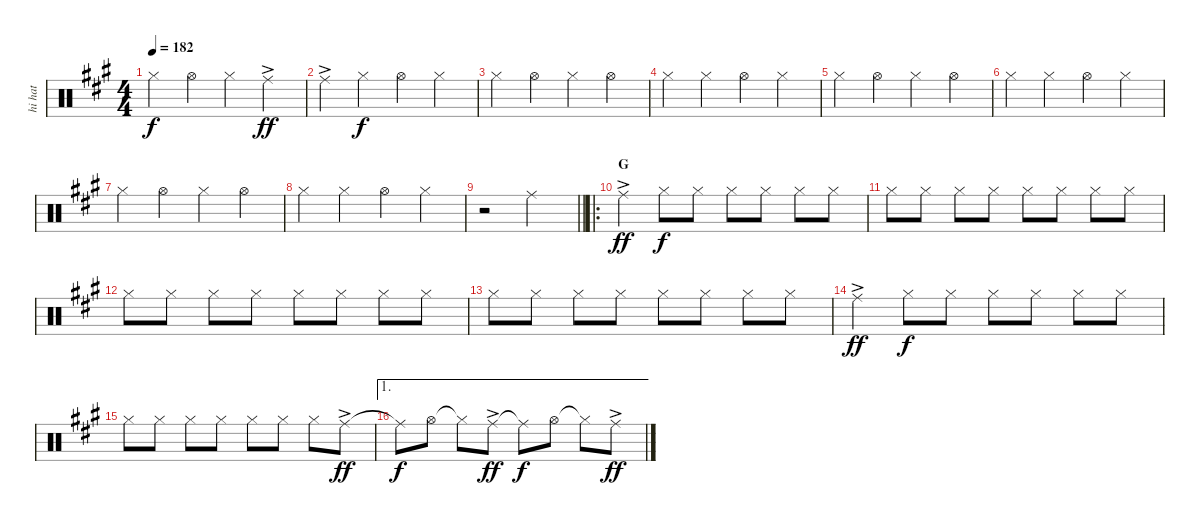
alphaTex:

\track ("hi hat" "hi hat") {instrument percussion}
\staff {score}
\articulation defaults
\ts (4 4)
\tempo 182
\clef neutral
\ks f#minor "Hi-Hat (closed)".4{dy f} "Hi-Hat (open)".4 "Hi-Hat (closed)".4 "Ride (middle)"{ac}.4{dy ff}
|
"Ride (middle)"{ac}.4 "Hi-Hat (closed)".4{dy f} "Hi-Hat (open)".4 "Hi-Hat (closed)".4 |
"Hi-Hat (closed)".4 "Hi-Hat (open)".4 "Hi-Hat (closed)".4 "Hi-Hat (open)".4 |
"Hi-Hat (closed)".4 "Hi-Hat (closed)".4 "Hi-Hat (open)".4 "Hi-Hat (closed)".4 |
"Hi-Hat (closed)".4 "Hi-Hat (open)".4 "Hi-Hat (closed)".4 "Hi-Hat (open)".4 |
"Hi-Hat (closed)".4 "Hi-Hat (closed)".4 "Hi-Hat (open)".4 "Hi-Hat (closed)".4 |
"Hi-Hat (closed)".4 "Hi-Hat (open)".4 "Hi-Hat (closed)".4 "Hi-Hat (open)".4 |
"Hi-Hat (closed)".4 "Hi-Hat (closed)".4 "Hi-Hat (open)".4 "Hi-Hat (closed)".4 |
\barLineRight lightlight
r.2 "Ride (middle)".2 |
\ro
\section ("" "G")
"Ride (middle)"{ac}.4{dy ff} "Hi-Hat (closed)".8{dy f} "Hi-Hat (closed)".8 "Hi-Hat (closed)".8 "Hi-Hat (closed)".8 "Hi-Hat (closed)".8 "Hi-Hat (closed)".8 |
"Hi-Hat (closed)".8 "Hi-Hat (closed)".8 "Hi-Hat (closed)".8 "Hi-Hat (closed)".8 "Hi-Hat (closed)".8 "Hi-Hat (closed)".8 "Hi-Hat (closed)".8 "Hi-Hat (closed)".8 |
"Hi-Hat (closed)".8 "Hi-Hat (closed)".8 "Hi-Hat (closed)".8 "Hi-Hat (closed)".8 "Hi-Hat (closed)".8 "Hi-Hat (closed)".8 "Hi-Hat (closed)".8 "Hi-Hat (closed)".8 |
"Hi-Hat (closed)".8 "Hi-Hat (closed)".8 "Hi-Hat (closed)".8 "Hi-Hat (closed)".8 "Hi-Hat (closed)".8 "Hi-Hat (closed)".8 "Hi-Hat (closed)".8 "Hi-Hat (closed)".8 |
"Ride (middle)"{ac}.4{dy ff} "Hi-Hat (closed)".8{dy f} "Hi-Hat (closed)".8 "Hi-Hat (closed)".8 "Hi-Hat (closed)".8 "Hi-Hat (closed)".8 "Hi-Hat (closed)".8 |
"Hi-Hat (closed)".8 "Hi-Hat (closed)".8 "Hi-Hat (closed)".8 "Hi-Hat (closed)".8 "Hi-Hat (closed)".8 "Hi-Hat (closed)".8 "Hi-Hat (closed)".8 "Ride (middle)"{ac}.8{dy ff} |
\ae 1 "Ride (middle)"{t}.8{dy f} "Hi-Hat (open)".8 "Hi-Hat (closed)"{t}.8 "Ride (middle)"{ac}.8{dy ff} "Ride (middle)"{t}.8{dy f} "Hi-Hat (open)".8 "Hi-Hat (closed)"{t}.8 "Ride (middle)"{ac}.8{dy ff}
